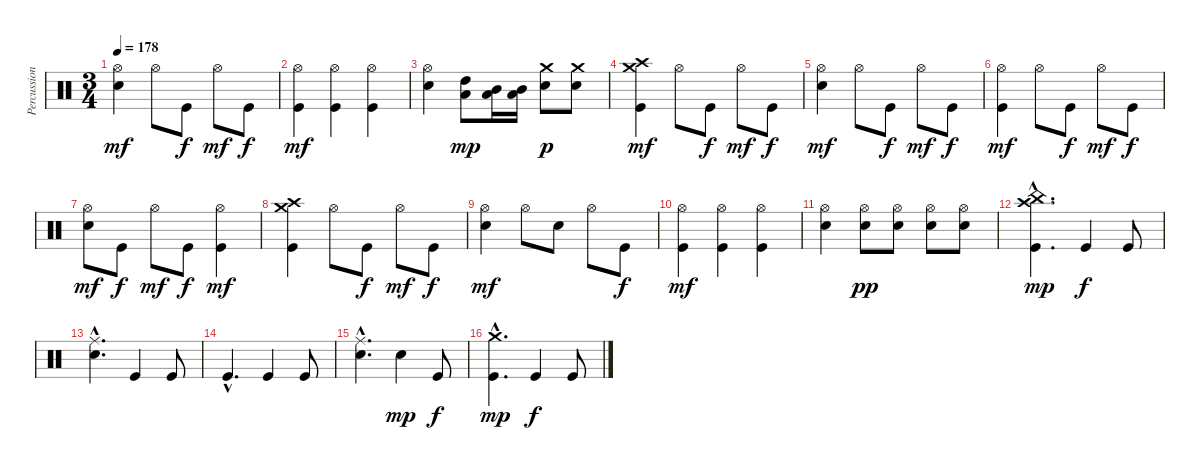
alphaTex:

\track ("Percussions" "Percussion") {instrument percussion}
\staff {score}
\articulation defaults
\ts (3 4)
\tempo 178
\clef neutral
\ks c
("Electric Snare (hit)" "Hi-Hat (open)").4{dy mf} "Hi-Hat (open)".8 "Kick (hit)".8{dy f} "Hi-Hat (open)".8{dy mf} "Kick (hit)".8{dy f} |
("Kick (hit)" "Hi-Hat (open)").4{dy mf} ("Kick (hit)" "Hi-Hat (open)").4 ("Kick (hit)" "Hi-Hat (open)").4 |
("Electric Snare (hit)" "Hi-Hat (open)").4 ("Low Tom (hit)" "High Tom (hit)").8{dy mp} ("Low Tom (hit)" "Mid Tom (hit)").16 ("Low Tom (hit)" "Mid Tom (hit)").16 ("Electric Snare (hit)" "Crash medium (hit)").8{dy p} ("Electric Snare (hit)" "Crash medium (hit)").8 |
("Kick (hit)" "Crash high (hit)" "Crash medium (hit)").4{dy mf} "Hi-Hat (open)".8 "Kick (hit)".8{dy f} "Hi-Hat (open)".8{dy mf} "Kick (hit)".8{dy f} |
("Electric Snare (hit)" "Hi-Hat (open)").4{dy mf} "Hi-Hat (open)".8 "Kick (hit)".8{dy f} "Hi-Hat (open)".8{dy mf} "Kick (hit)".8{dy f} |
("Kick (hit)" "Hi-Hat (open)").4{dy mf} "Hi-Hat (open)".8 "Kick (hit)".8{dy f} "Hi-Hat (open)".8{dy mf} "Kick (hit)".8{dy f} |
("Electric Snare (hit)" "Hi-Hat (open)").8{dy mf} "Kick (hit)".8{dy f} "Hi-Hat (open)".8{dy mf} "Kick (hit)".8{dy f} ("Kick (hit)" "Hi-Hat (open)").4{dy mf} |
("Kick (hit)" "Crash high (hit)" "Crash medium (hit)").4 "Hi-Hat (open)".8 "Kick (hit)".8{dy f} "Hi-Hat (open)".8{dy mf} "Kick (hit)".8{dy f} |
("Electric Snare (hit)" "Hi-Hat (open)").4{dy mf} "Hi-Hat (open)".8 "Electric Snare (hit)".8 "Hi-Hat (open)".8 "Kick (hit)".8{dy f} |
("Kick (hit)" "Hi-Hat (open)").4{dy mf} ("Kick (hit)" "Hi-Hat (open)").4 ("Kick (hit)" "Hi-Hat (open)").4 |
("Electric Snare (hit)" "Hi-Hat (open)").4 ("Electric Snare (hit)" "Hi-Hat (open)").8{dy pp} ("Electric Snare (hit)" "Hi-Hat (open)").8 ("Electric Snare (hit)" "Hi-Hat (open)").8 ("Electric Snare (hit)" "Hi-Hat (open)").8 |
("Kick (hit)"{hac} "China (hit)"{hac} "Crash high (hit)"{hac}).4{d dy mp} "Kick (hit)".4{dy f} "Kick (hit)".8 |
("Electric Snare (hit)"{hac} "Ride (middle)"{hac}).4{d} "Kick (hit)".4 "Kick (hit)".8 |
"Kick (hit)"{hac}.4{d} "Kick (hit)".4 "Kick (hit)".8 |
("Electric Snare (hit)"{hac} "Ride (middle)"{hac}).4{d} "Electric Snare (hit)".4{dy mp} "Kick (hit)".8{dy f} |
("Kick (hit)"{hac} "Crash medium (hit)"{hac}).4{d dy mp} "Kick (hit)".4{dy f} "Kick (hit)".8
